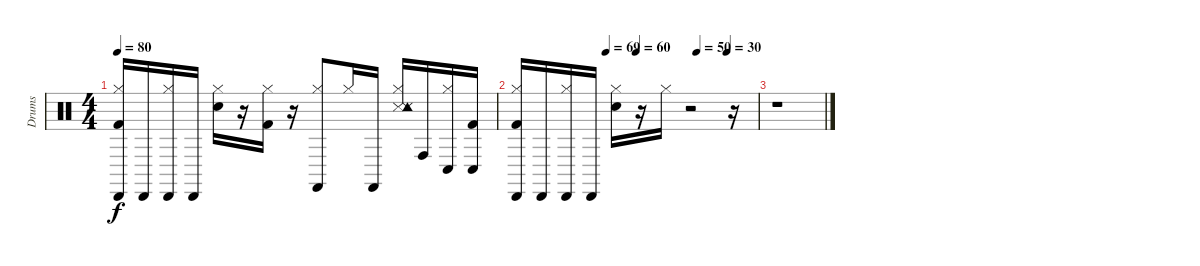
\track ("Drums" "Drums") {instrument percussion}
\staff {score}
\articulation defaults
\ts (4 4)
\tempo 80
\clef neutral
\ks c
("Hi-Hat (closed)" "Kick (hit) 2" "Cabasa (hit)").16{dy f} "Cabasa (hit)".16 ("Cabasa (hit)" "Hi-Hat (closed)").16 "Cabasa (hit)".16 ("Hi-Hat (closed)" "Electric Snare (hit)").16 r.16 ("Kick (hit) 2" "Hi-Hat (closed)").16 r.16 ("Castanets (hit)" "Hi-Hat (closed)").8 "Hi-Hat (closed)".16 "Castanets (hit)".16 ("Metronome (hit)" "Snare (side stick) 3" "Hi-Hat (closed)" "Tambourine (hit)").16 "Conga high (hit)".16 ("Hi-Hat (closed)" "Conga low (hit)").16 ("Kick (hit) 2" "Conga low (hit)").16 |
\tempo (69 0.375)
\tempo (60 0.5)
\tempo (50 0.75)
\tempo (30 0.875)
("Hi-Hat (closed)" "Kick (hit) 2" "Cabasa (hit)").16 "Cabasa (hit)".16 ("Cabasa (hit)" "Hi-Hat (closed)").16 "Cabasa (hit)".16 ("Snare (hit) 2" "Hi-Hat (closed)").16 r.16 "Hi-Hat (closed)".16 r.2 r.16 |
r.1
